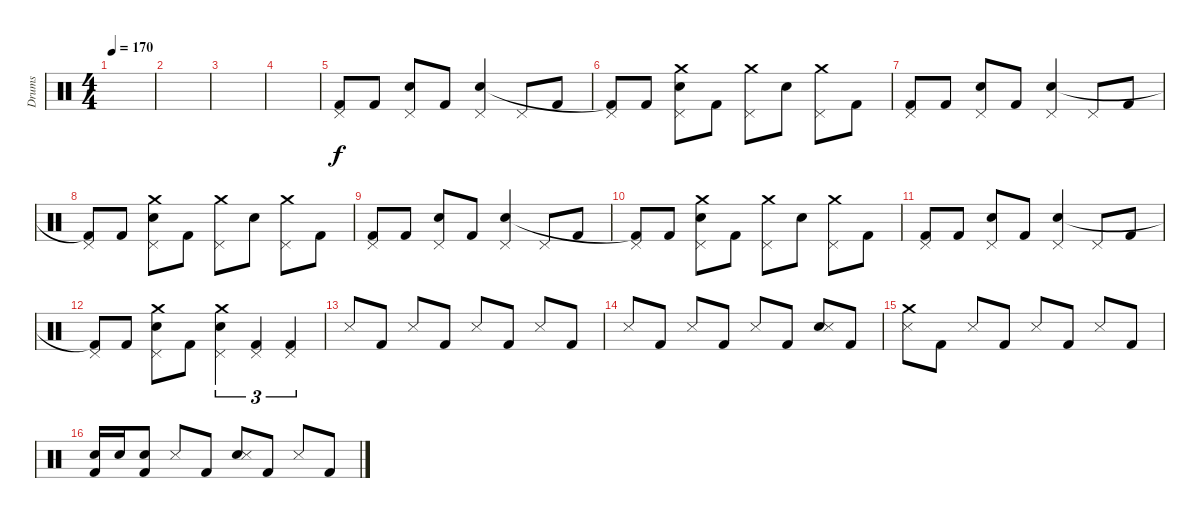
\track ("Drums" "Drums") {instrument percussion}
\staff {score}
\articulation defaults
\ts (4 4)
\tempo 170
\clef neutral
\ks c
|
|
|
|
("Pedal Hi-Hat (hit)" "Kick (hit) 2").8 "Kick (hit) 2".8 ("Pedal Hi-Hat (hit)" "Electric Snare (hit)").8 "Kick (hit) 2".8 ("Pedal Hi-Hat (hit)" "Electric Snare (hit)").4 "Pedal Hi-Hat (hit)".8 "Kick (hit) 2".8 |
("Pedal Hi-Hat (hit)" "Kick (hit) 2"{t}).8 "Kick (hit) 2".8 ("Pedal Hi-Hat (hit)" "Electric Snare (hit)" "Crash medium (hit)").8 "Kick (hit) 2".8 ("Pedal Hi-Hat (hit)" "Crash medium (hit)").8 "Electric Snare (hit)".8 ("Pedal Hi-Hat (hit)" "Crash medium (hit)").8 "Kick (hit) 2".8 |
("Pedal Hi-Hat (hit)" "Kick (hit) 2").8 "Kick (hit) 2".8 ("Pedal Hi-Hat (hit)" "Electric Snare (hit)").8 "Kick (hit) 2".8 ("Pedal Hi-Hat (hit)" "Electric Snare (hit)").4 "Pedal Hi-Hat (hit)".8 "Kick (hit) 2".8 |
("Pedal Hi-Hat (hit)" "Kick (hit) 2"{t}).8 "Kick (hit) 2".8 ("Pedal Hi-Hat (hit)" "Electric Snare (hit)" "Crash medium (hit)").8 "Kick (hit) 2".8 ("Pedal Hi-Hat (hit)" "Crash medium (hit)").8 "Electric Snare (hit)".8 ("Pedal Hi-Hat (hit)" "Crash medium (hit)").8 "Kick (hit) 2".8 |
("Pedal Hi-Hat (hit)" "Kick (hit) 2").8 "Kick (hit) 2".8 ("Pedal Hi-Hat (hit)" "Electric Snare (hit)").8 "Kick (hit) 2".8 ("Pedal Hi-Hat (hit)" "Electric Snare (hit)").4 "Pedal Hi-Hat (hit)".8 "Kick (hit) 2".8 |
("Pedal Hi-Hat (hit)" "Kick (hit) 2"{t}).8 "Kick (hit) 2".8 ("Pedal Hi-Hat (hit)" "Electric Snare (hit)" "Crash medium (hit)").8 "Kick (hit) 2".8 ("Pedal Hi-Hat (hit)" "Crash medium (hit)").8 "Electric Snare (hit)".8 ("Pedal Hi-Hat (hit)" "Crash medium (hit)").8 "Kick (hit) 2".8 |
("Pedal Hi-Hat (hit)" "Kick (hit) 2").8 "Kick (hit) 2".8 ("Pedal Hi-Hat (hit)" "Electric Snare (hit)").8 "Kick (hit) 2".8 ("Pedal Hi-Hat (hit)" "Electric Snare (hit)").4 "Pedal Hi-Hat (hit)".8 "Kick (hit) 2".8 |
("Pedal Hi-Hat (hit)" "Kick (hit) 2"{t}).8 "Kick (hit) 2".8 ("Pedal Hi-Hat (hit)" "Electric Snare (hit)" "Crash medium (hit)").8 "Kick (hit) 2".8 ("Pedal Hi-Hat (hit)" "Electric Snare (hit)" "Crash medium (hit)").4{tu (3 2)} ("Pedal Hi-Hat (hit)" "Kick (hit) 2").4{tu (3 2)} ("Pedal Hi-Hat (hit)" "Kick (hit) 2").4{tu (3 2)} |
"Metronome (hit)".8 "Kick (hit) 2".8 "Metronome (hit)".8 "Kick (hit) 2".8 "Metronome (hit)".8 "Kick (hit) 2".8 "Metronome (hit)".8 "Kick (hit) 2".8 |
"Metronome (hit)".8 "Kick (hit) 2".8 "Metronome (hit)".8 "Kick (hit) 2".8 "Metronome (hit)".8 "Kick (hit) 2".8 ("Electric Snare (hit)" "Metronome (hit)").8 "Kick (hit) 2".8 |
("Crash medium (hit)" "Metronome (hit)").8 "Kick (hit) 2".8 "Metronome (hit)".8 "Kick (hit) 2".8 "Metronome (hit)".8 "Kick (hit) 2".8 "Metronome (hit)".8 "Kick (hit) 2".8 |
("Electric Snare (hit)" "Kick (hit) 2").16 "Electric Snare (hit)".16 ("Electric Snare (hit)" "Kick (hit) 2").8 "Metronome (hit)".8 "Kick (hit) 2".8 ("Electric Snare (hit)" "Metronome (hit)").8 "Kick (hit) 2".8 "Metronome (hit)".8 "Kick (hit) 2".8
